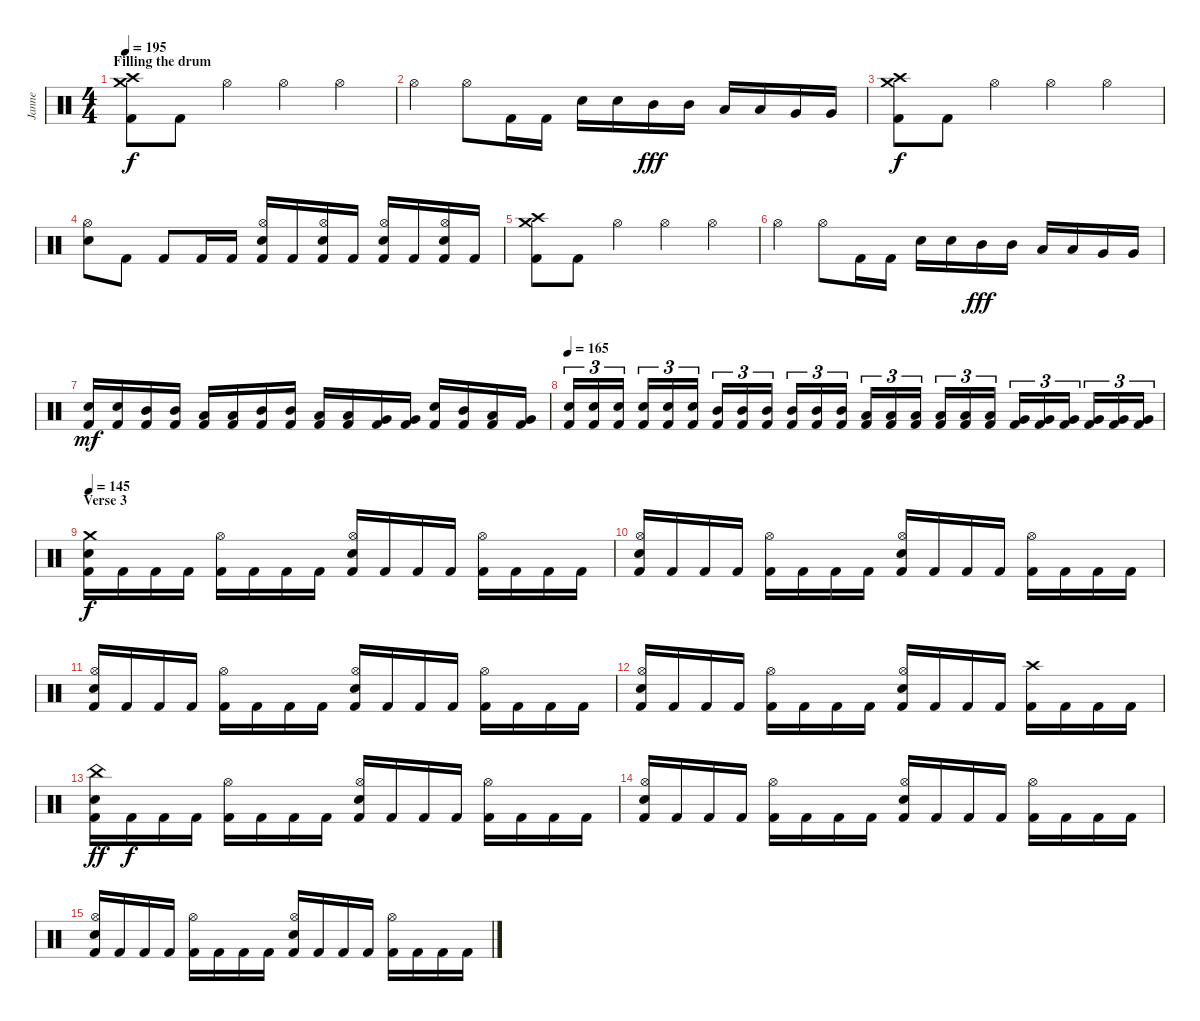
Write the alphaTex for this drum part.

\track ("Janne" "Janne") {instrument percussion}
\staff {score}
\articulation defaults
\ts (4 4)
\section ("" "Filling the drum")
\tempo 195
\clef neutral
\ks c
("Crash medium (hit)" "Crash high (hit)" "Kick (hit) 2").8{dy f} "Kick (hit) 2".8 "Hi-Hat (open)".4 "Hi-Hat (open)".4 "Hi-Hat (open)".4 |
"Hi-Hat (open)".4 "Hi-Hat (open)".8 "Kick (hit) 2".16 "Kick (hit) 2".16 "Electric Snare (hit)".16 "Electric Snare (hit)".16 "Mid Tom (hit)".16{dy fff} "Mid Tom (hit)".16 "Low Tom (hit)".16 "Low Tom (hit)".16 "Very Low Tom (hit)".16 "Very Low Tom (hit)".16 |
("Crash medium (hit)" "Crash high (hit)" "Kick (hit) 2").8{dy f} "Kick (hit) 2".8 "Hi-Hat (open)".4 "Hi-Hat (open)".4 "Hi-Hat (open)".4 |
("Hi-Hat (open)" "Electric Snare (hit)").8 "Kick (hit) 2".8 "Kick (hit) 2".8 "Kick (hit) 2".16 "Kick (hit) 2".16 ("Hi-Hat (open)" "Electric Snare (hit)" "Kick (hit) 2").16 "Kick (hit) 2".16 ("Hi-Hat (open)" "Electric Snare (hit)" "Kick (hit) 2").16 "Kick (hit) 2".16 ("Hi-Hat (open)" "Electric Snare (hit)" "Kick (hit) 2").16 "Kick (hit) 2".16 ("Hi-Hat (open)" "Electric Snare (hit)" "Kick (hit) 2").16 "Kick (hit) 2".16 |
("Crash medium (hit)" "Crash high (hit)" "Kick (hit) 2").8 "Kick (hit) 2".8 "Hi-Hat (open)".4 "Hi-Hat (open)".4 "Hi-Hat (open)".4 |
"Hi-Hat (open)".4 "Hi-Hat (open)".8 "Kick (hit) 2".16 "Kick (hit) 2".16 "Electric Snare (hit)".16 "Electric Snare (hit)".16 "Mid Tom (hit)".16{dy fff} "Mid Tom (hit)".16 "Low Tom (hit)".16 "Low Tom (hit)".16 "Very Low Tom (hit)".16 "Very Low Tom (hit)".16 |
("Electric Snare (hit)" "Kick (hit) 2").16{dy mf} ("Electric Snare (hit)" "Kick (hit) 2").16 ("Mid Tom (hit)" "Kick (hit) 2").16 ("Mid Tom (hit)" "Kick (hit) 2").16 ("Low Tom (hit)" "Kick (hit) 2").16 ("Low Tom (hit)" "Kick (hit) 2").16 ("Mid Tom (hit)" "Kick (hit) 2").16 ("Mid Tom (hit)" "Kick (hit) 2").16 ("Low Tom (hit)" "Kick (hit) 2").16 ("Low Tom (hit)" "Kick (hit) 2").16 ("Very Low Tom (hit)" "Kick (hit) 2").16 ("Very Low Tom (hit)" "Kick (hit) 2").16 ("Electric Snare (hit)" "Kick (hit) 2").16 ("Mid Tom (hit)" "Kick (hit) 2").16 ("Low Tom (hit)" "Kick (hit) 2").16 ("Very Low Tom (hit)" "Kick (hit) 2").16 |
\tempo 165
("Electric Snare (hit)" "Kick (hit) 2").16{tu (3 2)} ("Electric Snare (hit)" "Kick (hit) 2").16{tu (3 2)} ("Electric Snare (hit)" "Kick (hit) 2").16{tu (3 2)} ("Electric Snare (hit)" "Kick (hit) 2").16{tu (3 2)} ("Electric Snare (hit)" "Kick (hit) 2").16{tu (3 2)} ("Electric Snare (hit)" "Kick (hit) 2").16{tu (3 2)} ("Mid Tom (hit)" "Kick (hit) 2").16{tu (3 2)} ("Mid Tom (hit)" "Kick (hit) 2").16{tu (3 2)} ("Mid Tom (hit)" "Kick (hit) 2").16{tu (3 2)} ("Mid Tom (hit)" "Kick (hit) 2").16{tu (3 2)} ("Mid Tom (hit)" "Kick (hit) 2").16{tu (3 2)} ("Mid Tom (hit)" "Kick (hit) 2").16{tu (3 2)} ("Low Tom (hit)" "Kick (hit) 2").16{tu (3 2)} ("Low Tom (hit)" "Kick (hit) 2").16{tu (3 2)} ("Low Tom (hit)" "Kick (hit) 2").16{tu (3 2)} ("Low Tom (hit)" "Kick (hit) 2").16{tu (3 2)} ("Low Tom (hit)" "Kick (hit) 2").16{tu (3 2)} ("Low Tom (hit)" "Kick (hit) 2").16{tu (3 2)} ("Very Low Tom (hit)" "Kick (hit) 2").16{tu (3 2)} ("Very Low Tom (hit)" "Kick (hit) 2").16{tu (3 2)} ("Very Low Tom (hit)" "Kick (hit) 2").16{tu (3 2)} ("Very Low Tom (hit)" "Kick (hit) 2").16{tu (3 2)} ("Very Low Tom (hit)" "Kick (hit) 2").16{tu (3 2)} ("Very Low Tom (hit)" "Kick (hit) 2").16{tu (3 2)} |
\section ("" "Verse 3")
\tempo 145
("Crash medium (hit)" "Electric Snare (hit)" "Kick (hit) 2").16{dy f} "Kick (hit) 2".16 "Kick (hit) 2".16 "Kick (hit) 2".16 ("Hi-Hat (open)" "Kick (hit) 2").16 "Kick (hit) 2".16 "Kick (hit) 2".16 "Kick (hit) 2".16 ("Hi-Hat (open)" "Electric Snare (hit)" "Kick (hit) 2").16 "Kick (hit) 2".16 "Kick (hit) 2".16 "Kick (hit) 2".16 ("Hi-Hat (open)" "Kick (hit) 2").16 "Kick (hit) 2".16 "Kick (hit) 2".16 "Kick (hit) 2".16 |
("Hi-Hat (open)" "Electric Snare (hit)" "Kick (hit) 2").16 "Kick (hit) 2".16 "Kick (hit) 2".16 "Kick (hit) 2".16 ("Hi-Hat (open)" "Kick (hit) 2").16 "Kick (hit) 2".16 "Kick (hit) 2".16 "Kick (hit) 2".16 ("Hi-Hat (open)" "Electric Snare (hit)" "Kick (hit) 2").16 "Kick (hit) 2".16 "Kick (hit) 2".16 "Kick (hit) 2".16 ("Hi-Hat (open)" "Kick (hit) 2").16 "Kick (hit) 2".16 "Kick (hit) 2".16 "Kick (hit) 2".16 |
("Hi-Hat (open)" "Electric Snare (hit)" "Kick (hit) 2").16 "Kick (hit) 2".16 "Kick (hit) 2".16 "Kick (hit) 2".16 ("Hi-Hat (open)" "Kick (hit) 2").16 "Kick (hit) 2".16 "Kick (hit) 2".16 "Kick (hit) 2".16 ("Hi-Hat (open)" "Electric Snare (hit)" "Kick (hit) 2").16 "Kick (hit) 2".16 "Kick (hit) 2".16 "Kick (hit) 2".16 ("Hi-Hat (open)" "Kick (hit) 2").16 "Kick (hit) 2".16 "Kick (hit) 2".16 "Kick (hit) 2".16 |
("Hi-Hat (open)" "Electric Snare (hit)" "Kick (hit) 2").16 "Kick (hit) 2".16 "Kick (hit) 2".16 "Kick (hit) 2".16 ("Hi-Hat (open)" "Kick (hit) 2").16 "Kick (hit) 2".16 "Kick (hit) 2".16 "Kick (hit) 2".16 ("Hi-Hat (open)" "Electric Snare (hit)" "Kick (hit) 2").16 "Kick (hit) 2".16 "Kick (hit) 2".16 "Kick (hit) 2".16 ("Crash high (hit)" "Kick (hit) 2").16 "Kick (hit) 2".16 "Kick (hit) 2".16 "Kick (hit) 2".16 |
("China (hit)" "Electric Snare (hit)" "Kick (hit) 2").16{dy ff} "Kick (hit) 2".16{dy f} "Kick (hit) 2".16 "Kick (hit) 2".16 ("Hi-Hat (open)" "Kick (hit) 2").16 "Kick (hit) 2".16 "Kick (hit) 2".16 "Kick (hit) 2".16 ("Hi-Hat (open)" "Electric Snare (hit)" "Kick (hit) 2").16 "Kick (hit) 2".16 "Kick (hit) 2".16 "Kick (hit) 2".16 ("Hi-Hat (open)" "Kick (hit) 2").16 "Kick (hit) 2".16 "Kick (hit) 2".16 "Kick (hit) 2".16 |
("Hi-Hat (open)" "Electric Snare (hit)" "Kick (hit) 2").16 "Kick (hit) 2".16 "Kick (hit) 2".16 "Kick (hit) 2".16 ("Hi-Hat (open)" "Kick (hit) 2").16 "Kick (hit) 2".16 "Kick (hit) 2".16 "Kick (hit) 2".16 ("Hi-Hat (open)" "Electric Snare (hit)" "Kick (hit) 2").16 "Kick (hit) 2".16 "Kick (hit) 2".16 "Kick (hit) 2".16 ("Hi-Hat (open)" "Kick (hit) 2").16 "Kick (hit) 2".16 "Kick (hit) 2".16 "Kick (hit) 2".16 |
("Hi-Hat (open)" "Electric Snare (hit)" "Kick (hit) 2").16 "Kick (hit) 2".16 "Kick (hit) 2".16 "Kick (hit) 2".16 ("Hi-Hat (open)" "Kick (hit) 2").16 "Kick (hit) 2".16 "Kick (hit) 2".16 "Kick (hit) 2".16 ("Hi-Hat (open)" "Electric Snare (hit)" "Kick (hit) 2").16 "Kick (hit) 2".16 "Kick (hit) 2".16 "Kick (hit) 2".16 ("Hi-Hat (open)" "Kick (hit) 2").16 "Kick (hit) 2".16 "Kick (hit) 2".16 "Kick (hit) 2".16
